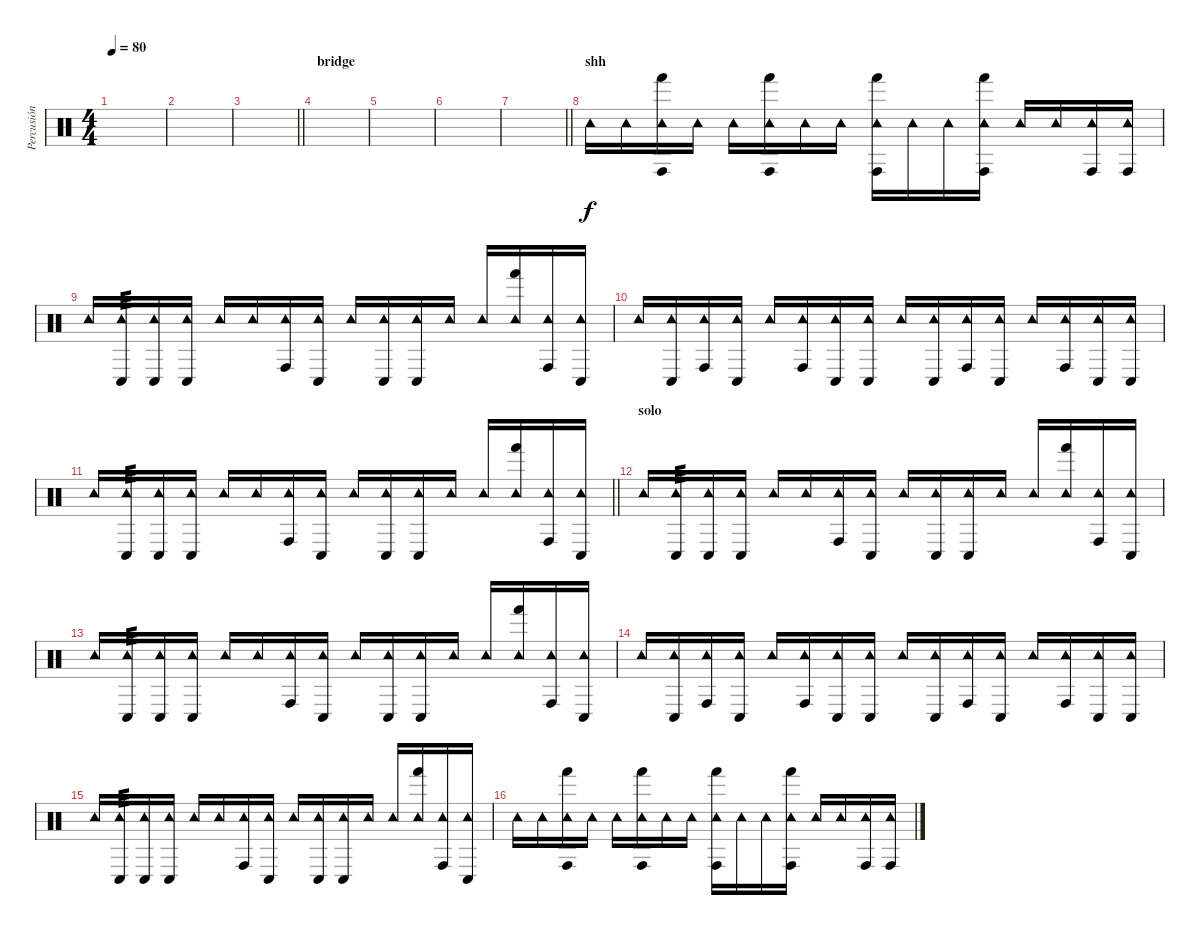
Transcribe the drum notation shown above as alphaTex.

\track ("Percusión" "Percusión") {instrument percussion}
\staff {score}
\articulation defaults
\ts (4 4)
\tempo 80
\clef neutral
\ks c
|
|
\barLineRight lightlight
|
\section ("" "bridge")
|
|
|
\barLineRight lightlight
|
\section ("" "shh")
"Tambourine (hit)".16 "Tambourine (hit)".16 ("Tambourine (hit)" "Conga high (hit)" "Hand (hit)").16 "Tambourine (hit)".16 "Tambourine (hit)".16 ("Tambourine (hit)" "Conga high (hit)" "Hand (hit)").16 "Tambourine (hit)".16 "Tambourine (hit)".16 ("Tambourine (hit)" "Conga high (hit)" "Hand (hit)").16 "Tambourine (hit)".16 "Tambourine (hit)".16 ("Tambourine (hit)" "Conga high (hit)" "Hand (hit)").16 "Tambourine (hit)".16 "Tambourine (hit)".16 ("Tambourine (hit)" "Conga high (hit)").16 ("Tambourine (hit)" "Conga high (hit)").16 |
"Tambourine (hit)".16 ("Tambourine (hit)" "Conga low (hit)").16{tp 3} ("Tambourine (hit)" "Conga low (hit)").16 ("Tambourine (hit)" "Conga low (hit)").16 "Tambourine (hit)".16 "Tambourine (hit)".16 ("Tambourine (hit)" "Conga high (hit)").16 ("Tambourine (hit)" "Conga low (hit)").16 "Tambourine (hit)".16 ("Tambourine (hit)" "Conga low (hit)").16 ("Tambourine (hit)" "Conga low (hit)").16 "Tambourine (hit)".16 "Tambourine (hit)".16 ("Tambourine (hit)" "Hand (hit)").16 ("Tambourine (hit)" "Conga high (hit)").16 ("Tambourine (hit)" "Conga low (hit)").16 |
"Tambourine (hit)".16 ("Tambourine (hit)" "Conga low (hit)").16 ("Tambourine (hit)" "Conga high (hit)").16 ("Tambourine (hit)" "Conga low (hit)").16 "Tambourine (hit)".16 ("Tambourine (hit)" "Conga high (hit)").16 ("Tambourine (hit)" "Conga low (hit)").16 ("Tambourine (hit)" "Conga low (hit)").16 "Tambourine (hit)".16 ("Tambourine (hit)" "Conga low (hit)").16 ("Tambourine (hit)" "Conga high (hit)").16 ("Tambourine (hit)" "Conga low (hit)").16 "Tambourine (hit)".16 ("Tambourine (hit)" "Conga high (hit)").16 ("Tambourine (hit)" "Conga low (hit)").16 ("Tambourine (hit)" "Conga low (hit)").16 |
\barLineRight lightlight "Tambourine (hit)".16
("Tambourine (hit)" "Conga low (hit)").16{tp 3} ("Tambourine (hit)" "Conga low (hit)").16 ("Tambourine (hit)" "Conga low (hit)").16 "Tambourine (hit)".16 "Tambourine (hit)".16 ("Tambourine (hit)" "Conga high (hit)").16 ("Tambourine (hit)" "Conga low (hit)").16 "Tambourine (hit)".16 ("Tambourine (hit)" "Conga low (hit)").16 ("Tambourine (hit)" "Conga low (hit)").16 "Tambourine (hit)".16 "Tambourine (hit)".16 ("Tambourine (hit)" "Hand (hit)").16 ("Tambourine (hit)" "Conga high (hit)").16 ("Tambourine (hit)" "Conga low (hit)").16 |
\section ("" "solo")
"Tambourine (hit)".16 ("Tambourine (hit)" "Conga low (hit)").16{tp 3} ("Tambourine (hit)" "Conga low (hit)").16 ("Tambourine (hit)" "Conga low (hit)").16 "Tambourine (hit)".16 "Tambourine (hit)".16 ("Tambourine (hit)" "Conga high (hit)").16 ("Tambourine (hit)" "Conga low (hit)").16 "Tambourine (hit)".16 ("Tambourine (hit)" "Conga low (hit)").16 ("Tambourine (hit)" "Conga low (hit)").16 "Tambourine (hit)".16 "Tambourine (hit)".16 ("Tambourine (hit)" "Hand (hit)").16 ("Tambourine (hit)" "Conga high (hit)").16 ("Tambourine (hit)" "Conga low (hit)").16 |
"Tambourine (hit)".16 ("Tambourine (hit)" "Conga low (hit)").16{tp 3} ("Tambourine (hit)" "Conga low (hit)").16 ("Tambourine (hit)" "Conga low (hit)").16 "Tambourine (hit)".16 "Tambourine (hit)".16 ("Tambourine (hit)" "Conga high (hit)").16 ("Tambourine (hit)" "Conga low (hit)").16 "Tambourine (hit)".16 ("Tambourine (hit)" "Conga low (hit)").16 ("Tambourine (hit)" "Conga low (hit)").16 "Tambourine (hit)".16 "Tambourine (hit)".16 ("Tambourine (hit)" "Hand (hit)").16 ("Tambourine (hit)" "Conga high (hit)").16 ("Tambourine (hit)" "Conga low (hit)").16 |
"Tambourine (hit)".16 ("Tambourine (hit)" "Conga low (hit)").16 ("Tambourine (hit)" "Conga high (hit)").16 ("Tambourine (hit)" "Conga low (hit)").16 "Tambourine (hit)".16 ("Tambourine (hit)" "Conga high (hit)").16 ("Tambourine (hit)" "Conga low (hit)").16 ("Tambourine (hit)" "Conga low (hit)").16 "Tambourine (hit)".16 ("Tambourine (hit)" "Conga low (hit)").16 ("Tambourine (hit)" "Conga high (hit)").16 ("Tambourine (hit)" "Conga low (hit)").16 "Tambourine (hit)".16 ("Tambourine (hit)" "Conga high (hit)").16 ("Tambourine (hit)" "Conga low (hit)").16 ("Tambourine (hit)" "Conga low (hit)").16 |
"Tambourine (hit)".16 ("Tambourine (hit)" "Conga low (hit)").16{tp 3} ("Tambourine (hit)" "Conga low (hit)").16 ("Tambourine (hit)" "Conga low (hit)").16 "Tambourine (hit)".16 "Tambourine (hit)".16 ("Tambourine (hit)" "Conga high (hit)").16 ("Tambourine (hit)" "Conga low (hit)").16 "Tambourine (hit)".16 ("Tambourine (hit)" "Conga low (hit)").16 ("Tambourine (hit)" "Conga low (hit)").16 "Tambourine (hit)".16 "Tambourine (hit)".16 ("Tambourine (hit)" "Hand (hit)").16 ("Tambourine (hit)" "Conga high (hit)").16 ("Tambourine (hit)" "Conga low (hit)").16 |
"Tambourine (hit)".16 "Tambourine (hit)".16 ("Tambourine (hit)" "Conga high (hit)" "Hand (hit)").16 "Tambourine (hit)".16 "Tambourine (hit)".16 ("Tambourine (hit)" "Conga high (hit)" "Hand (hit)").16 "Tambourine (hit)".16 "Tambourine (hit)".16 ("Tambourine (hit)" "Conga high (hit)" "Hand (hit)").16 "Tambourine (hit)".16 "Tambourine (hit)".16 ("Tambourine (hit)" "Conga high (hit)" "Hand (hit)").16 "Tambourine (hit)".16 "Tambourine (hit)".16 ("Tambourine (hit)" "Conga high (hit)").16 ("Tambourine (hit)" "Conga high (hit)").16
